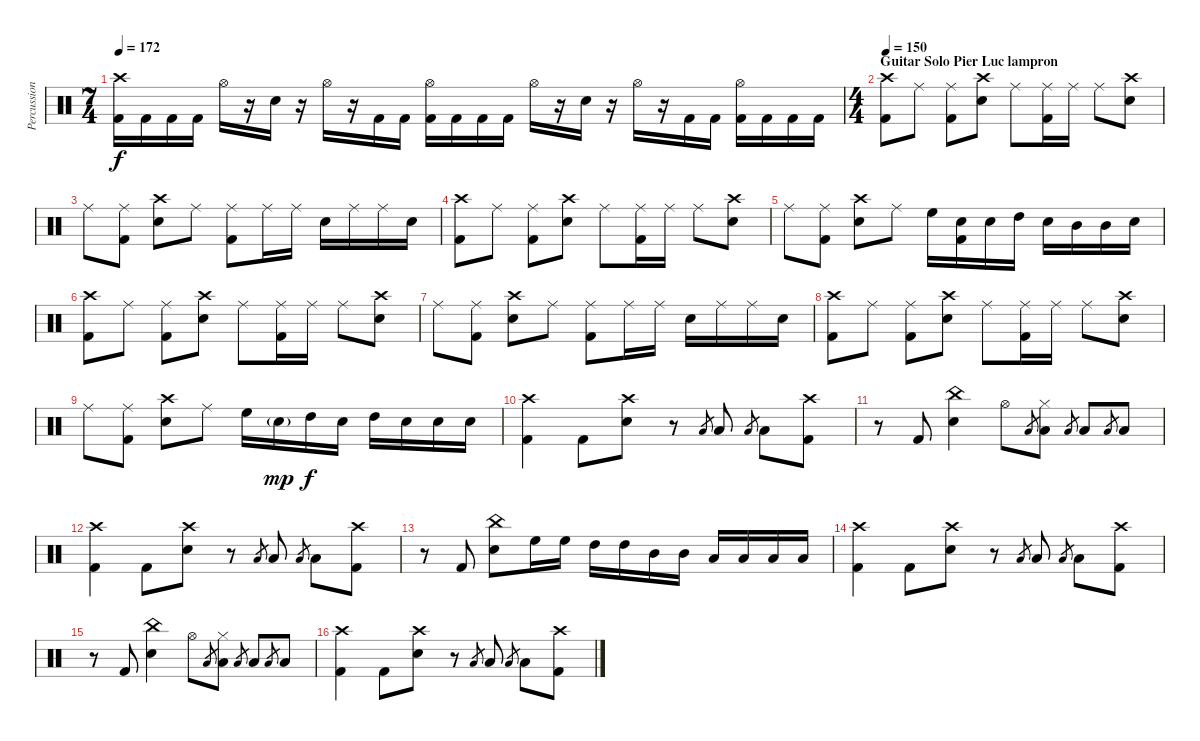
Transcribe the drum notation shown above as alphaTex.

\track ("Percussion" "Percussion") {instrument percussion}
\staff {score}
\articulation defaults
\ts (7 4)
\tempo 172
\clef neutral
\ks c
("Crash high (hit)" "Kick (hit) 2").16{dy f} "Kick (hit) 2".16 "Kick (hit) 2".16 "Kick (hit) 2".16 "Hi-Hat (open)".16 r.16 "Electric Snare (hit)".16 r.16 "Hi-Hat (open)".16 r.16 "Kick (hit) 2".16 "Kick (hit) 2".16 ("Hi-Hat (open)" "Kick (hit) 2").16 "Kick (hit) 2".16 "Kick (hit) 2".16 "Kick (hit) 2".16 "Hi-Hat (open)".16 r.16 "Electric Snare (hit)".16 r.16 "Hi-Hat (open)".16 r.16 "Kick (hit) 2".16 "Kick (hit) 2".16 ("Hi-Hat (open)" "Kick (hit) 2").16 "Kick (hit) 2".16 "Kick (hit) 2".16 "Kick (hit) 2".16 |
\ts (4 4)
\section ("" "Guitar Solo Pier Luc lampron")
\tempo 150
("Crash high (hit)" "Kick (hit) 2").8 "Ride (middle)".8 ("Ride (middle)" "Kick (hit) 2").8 ("Crash high (hit)" "Electric Snare (hit)").8 "Ride (middle)".8 ("Ride (middle)" "Kick (hit) 2").16 "Ride (middle)".16 "Ride (middle)".8 ("Crash high (hit)" "Electric Snare (hit)").8 |
"Ride (middle)".8 ("Ride (middle)" "Kick (hit) 2").8 ("Crash high (hit)" "Electric Snare (hit)").8 "Ride (middle)".8 ("Ride (middle)" "Kick (hit) 2").8 "Ride (middle)".16 "Ride (middle)".16 "Electric Snare (hit)".16 "Ride (middle)".16 "Ride (middle)".16 "Electric Snare (hit)".16 |
("Crash high (hit)" "Kick (hit) 2").8 "Ride (middle)".8 ("Ride (middle)" "Kick (hit) 2").8 ("Crash high (hit)" "Electric Snare (hit)").8 "Ride (middle)".8 ("Ride (middle)" "Kick (hit) 2").16 "Ride (middle)".16 "Ride (middle)".8 ("Crash high (hit)" "Electric Snare (hit)").8 |
"Ride (middle)".8 ("Ride (middle)" "Kick (hit) 2").8 ("Crash high (hit)" "Electric Snare (hit)").8 "Ride (middle)".8 "High Floor Tom (hit)".16 ("Electric Snare (hit)" "Kick (hit) 2").16 "Electric Snare (hit)".16 "High Tom (hit)".16 "Electric Snare (hit)".16 "Mid Tom (hit)".16 "Mid Tom (hit)".16 "Electric Snare (hit)".16 |
("Crash high (hit)" "Kick (hit) 2").8 "Ride (middle)".8 ("Ride (middle)" "Kick (hit) 2").8 ("Crash high (hit)" "Electric Snare (hit)").8 "Ride (middle)".8 ("Ride (middle)" "Kick (hit) 2").16 "Ride (middle)".16 "Ride (middle)".8 ("Crash high (hit)" "Electric Snare (hit)").8 |
"Ride (middle)".8 ("Ride (middle)" "Kick (hit) 2").8 ("Crash high (hit)" "Electric Snare (hit)").8 "Ride (middle)".8 ("Ride (middle)" "Kick (hit) 2").8 "Ride (middle)".16 "Ride (middle)".16 "Electric Snare (hit)".16 "Ride (middle)".16 "Ride (middle)".16 "Electric Snare (hit)".16 |
("Crash high (hit)" "Kick (hit) 2").8 "Ride (middle)".8 ("Ride (middle)" "Kick (hit) 2").8 ("Crash high (hit)" "Electric Snare (hit)").8 "Ride (middle)".8 ("Ride (middle)" "Kick (hit) 2").16 "Ride (middle)".16 "Ride (middle)".8 ("Crash high (hit)" "Electric Snare (hit)").8 |
"Ride (middle)".8 ("Ride (middle)" "Kick (hit) 2").8 ("Crash high (hit)" "Electric Snare (hit)").8 "Ride (middle)".8 "High Floor Tom (hit)".16 "Electric Snare (hit)"{g}.16{dy mp} "High Tom (hit)".16{dy f} "Electric Snare (hit)".16 "High Tom (hit)".16 "Electric Snare (hit)".16 "Electric Snare (hit)".16 "Electric Snare (hit)".16 |
("Crash high (hit)" "Kick (hit) 2").4 "Kick (hit) 2".8 ("Crash high (hit)" "Electric Snare (hit)").8 r.8 "Low Tom (hit)".8{gr} "Low Tom (hit)".8 "Low Tom (hit)".8{gr} "Low Tom (hit)".8 ("Crash high (hit)" "Kick (hit) 2").8 |
r.8 "Kick (hit) 2".8 ("China (hit)" "Electric Snare (hit)").4 "Hi-Hat (open)".8 "Low Tom (hit)".8{gr} ("Hi-Hat (closed)" "Low Tom (hit)").8 "Low Tom (hit)".8{gr} "Low Tom (hit)".8 "Low Tom (hit)".8{gr} "Low Tom (hit)".8 |
("Crash high (hit)" "Kick (hit) 2").4 "Kick (hit) 2".8 ("Crash high (hit)" "Electric Snare (hit)").8 r.8 "Low Tom (hit)".8{gr} "Low Tom (hit)".8 "Low Tom (hit)".8{gr} "Low Tom (hit)".8 ("Crash high (hit)" "Kick (hit) 2").8 |
r.8 "Kick (hit) 2".8 ("China (hit)" "Electric Snare (hit)").8 "High Floor Tom (hit)".16 "High Floor Tom (hit)".16 "High Tom (hit)".16 "High Tom (hit)".16 "Mid Tom (hit)".16 "Mid Tom (hit)".16 "Low Tom (hit)".16 "Low Tom (hit)".16 "Low Floor Tom (hit)".16 "Low Floor Tom (hit)".16 |
("Crash high (hit)" "Kick (hit) 2").4 "Kick (hit) 2".8 ("Crash high (hit)" "Electric Snare (hit)").8 r.8 "Low Tom (hit)".8{gr} "Low Tom (hit)".8 "Low Tom (hit)".8{gr} "Low Tom (hit)".8 ("Crash high (hit)" "Kick (hit) 2").8 |
r.8 "Kick (hit) 2".8 ("China (hit)" "Electric Snare (hit)").4 "Hi-Hat (open)".8 "Low Tom (hit)".8{gr} ("Hi-Hat (closed)" "Low Tom (hit)").8 "Low Tom (hit)".8{gr} "Low Tom (hit)".8 "Low Tom (hit)".8{gr} "Low Tom (hit)".8 |
("Crash high (hit)" "Kick (hit) 2").4 "Kick (hit) 2".8 ("Crash high (hit)" "Electric Snare (hit)").8 r.8 "Low Tom (hit)".8{gr} "Low Tom (hit)".8 "Low Tom (hit)".8{gr} "Low Tom (hit)".8 ("Crash high (hit)" "Kick (hit) 2").8
